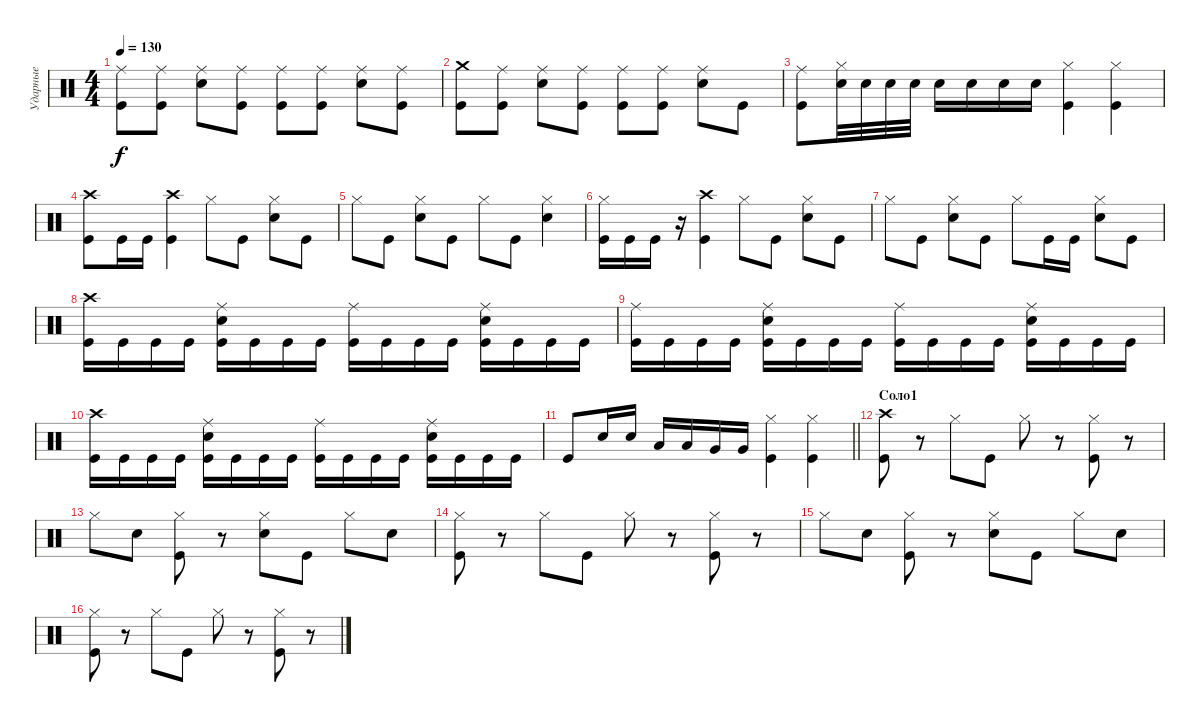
\track ("Ударные" "Ударные") {instrument percussion}
\staff {score}
\articulation defaults
\ts (4 4)
\tempo 130
\clef neutral
\ks c
("Ride (middle)" "Kick (hit)").8{dy f} ("Ride (middle)" "Kick (hit)").8 ("Ride (middle)" "Snare (hit) 2").8 ("Ride (middle)" "Kick (hit)").8 ("Ride (middle)" "Kick (hit)").8 ("Ride (middle)" "Kick (hit)").8 ("Ride (middle)" "Snare (hit) 2").8 ("Ride (middle)" "Kick (hit)").8 |
("Crash medium (hit)" "Kick (hit)").8 ("Ride (middle)" "Kick (hit)").8 ("Ride (middle)" "Snare (hit) 2").8 ("Ride (middle)" "Kick (hit)").8 ("Ride (middle)" "Kick (hit)").8 ("Ride (middle)" "Kick (hit)").8 ("Ride (middle)" "Snare (hit) 2").8 "Kick (hit)".8 |
("Ride (middle)" "Kick (hit)").8 ("Hi-Hat (closed)" "Snare (hit) 2").32 "Snare (hit) 2".32 "Snare (hit) 2".32 "Snare (hit) 2".32 "Snare (hit) 2".16 "Snare (hit) 2".16 "Snare (hit) 2".16 "Snare (hit) 2".16 ("Hi-Hat (closed)" "Kick (hit)").4 ("Hi-Hat (closed)" "Kick (hit)").4 |
("Crash high (hit)" "Kick (hit)").8 "Kick (hit)".16 "Kick (hit)".16 ("Crash high (hit)" "Kick (hit)").4 "Hi-Hat (closed)".8 "Kick (hit)".8 ("Hi-Hat (closed)" "Snare (hit) 2").8 "Kick (hit)".8 |
"Hi-Hat (closed)".8 "Kick (hit)".8 ("Hi-Hat (closed)" "Snare (hit) 2").8 "Kick (hit)".8 "Hi-Hat (closed)".8 "Kick (hit)".8 ("Hi-Hat (closed)" "Snare (hit) 2").4 |
("Hi-Hat (closed)" "Kick (hit)").16 "Kick (hit)".16 "Kick (hit)".16 r.16 ("Crash high (hit)" "Kick (hit)").4 "Hi-Hat (closed)".8 "Kick (hit)".8 ("Hi-Hat (closed)" "Snare (hit) 2").8 "Kick (hit)".8 |
"Hi-Hat (closed)".8 "Kick (hit)".8 ("Hi-Hat (closed)" "Snare (hit) 2").8 "Kick (hit)".8 "Hi-Hat (closed)".8 "Kick (hit)".16 "Kick (hit)".16 ("Hi-Hat (closed)" "Snare (hit) 2").8 "Kick (hit)".8 |
("Crash high (hit)" "Kick (hit)").16 "Kick (hit)".16 "Kick (hit)".16 "Kick (hit)".16 ("Ride (middle)" "Snare (hit) 2" "Kick (hit)").16 "Kick (hit)".16 "Kick (hit)".16 "Kick (hit)".16 ("Ride (middle)" "Kick (hit)").16 "Kick (hit)".16 "Kick (hit)".16 "Kick (hit)".16 ("Ride (middle)" "Snare (hit) 2" "Kick (hit)").16 "Kick (hit)".16 "Kick (hit)".16 "Kick (hit)".16 |
("Ride (middle)" "Kick (hit)").16 "Kick (hit)".16 "Kick (hit)".16 "Kick (hit)".16 ("Ride (middle)" "Snare (hit) 2" "Kick (hit)").16 "Kick (hit)".16 "Kick (hit)".16 "Kick (hit)".16 ("Ride (middle)" "Kick (hit)").16 "Kick (hit)".16 "Kick (hit)".16 "Kick (hit)".16 ("Ride (middle)" "Snare (hit) 2" "Kick (hit)").16 "Kick (hit)".16 "Kick (hit)".16 "Kick (hit)".16 |
("Crash high (hit)" "Kick (hit)").16 "Kick (hit)".16 "Kick (hit)".16 "Kick (hit)".16 ("Ride (middle)" "Snare (hit) 2" "Kick (hit)").16 "Kick (hit)".16 "Kick (hit)".16 "Kick (hit)".16 ("Ride (middle)" "Kick (hit)").16 "Kick (hit)".16 "Kick (hit)".16 "Kick (hit)".16 ("Ride (middle)" "Snare (hit) 2" "Kick (hit)").16 "Kick (hit)".16 "Kick (hit)".16 "Kick (hit)".16 |
\barLineRight lightlight "Kick (hit)".8 "Snare (hit) 2".16 "Snare (hit) 2".16 "Low Tom (hit)".16 "Low Tom (hit)".16 "Very Low Tom (hit)".16 "Very Low Tom (hit)".16
("Hi-Hat (closed)" "Kick (hit)").4 ("Hi-Hat (closed)" "Kick (hit)").4 |
\section ("" "Соло1")
("Crash high (hit)" "Kick (hit)").8 r.8 "Hi-Hat (closed)".8 "Kick (hit)".8 "Hi-Hat (closed)".8 r.8 ("Hi-Hat (closed)" "Kick (hit)").8 r.8 |
"Hi-Hat (closed)".8 "Snare (hit) 2".8 ("Hi-Hat (closed)" "Kick (hit)").8 r.8 ("Hi-Hat (closed)" "Snare (hit) 2").8 "Kick (hit)".8 "Hi-Hat (closed)".8 "Snare (hit) 2".8 |
("Hi-Hat (closed)" "Kick (hit)").8 r.8 "Hi-Hat (closed)".8 "Kick (hit)".8 "Hi-Hat (closed)".8 r.8 ("Hi-Hat (closed)" "Kick (hit)").8 r.8 |
"Hi-Hat (closed)".8 "Snare (hit) 2".8 ("Hi-Hat (closed)" "Kick (hit)").8 r.8 ("Hi-Hat (closed)" "Snare (hit) 2").8 "Kick (hit)".8 "Hi-Hat (closed)".8 "Snare (hit) 2".8 |
("Hi-Hat (closed)" "Kick (hit)").8 r.8 "Hi-Hat (closed)".8 "Kick (hit)".8 "Hi-Hat (closed)".8 r.8 ("Hi-Hat (closed)" "Kick (hit)").8 r.8
